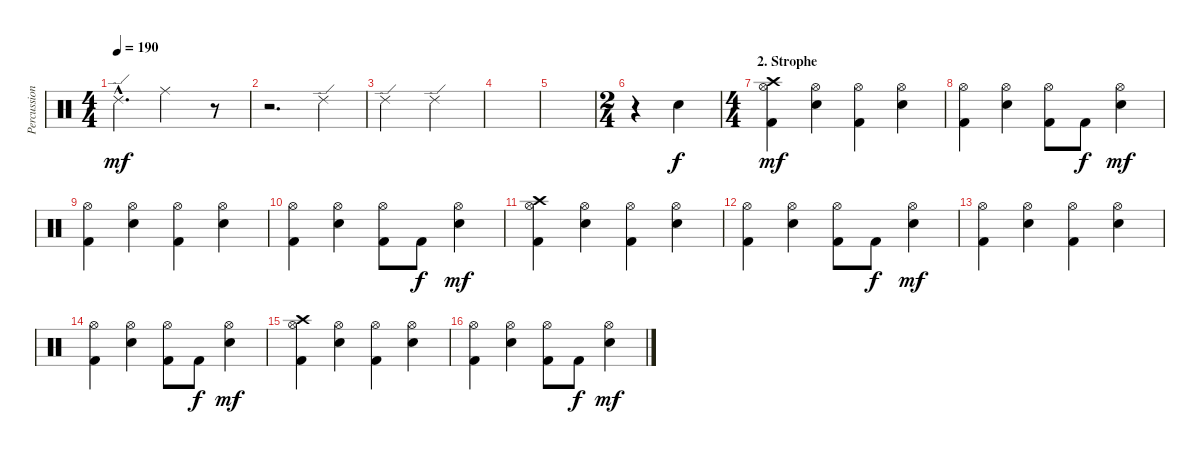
\track ("Percussion" "Percussion") {instrument percussion}
\staff {score}
\articulation defaults
\ts (4 4)
\tempo 190
\clef neutral
\ks c "Ride (edge) 2"{hac}.4{d dy mf} "Ride (middle)".2
r.8 |
r.2{d} "Ride (edge) 2".4 |
"Ride (edge) 2".2 "Ride (edge) 2".2 |
|
|
\ts (2 4)
\section ("" "")
r.4 "Electric Snare (hit)".4{dy f} |
\ts (4 4)
\section ("" "2. Strophe")
("Crash high (hit)" "Hi-Hat (open)" "Kick (hit) 2").4{dy mf} ("Hi-Hat (open)" "Electric Snare (hit)").4 ("Hi-Hat (open)" "Kick (hit) 2").4 ("Hi-Hat (open)" "Electric Snare (hit)").4 |
("Hi-Hat (open)" "Kick (hit) 2").4 ("Hi-Hat (open)" "Electric Snare (hit)").4 ("Hi-Hat (open)" "Kick (hit) 2").8 "Kick (hit) 2".8{dy f} ("Hi-Hat (open)" "Electric Snare (hit)").4{dy mf} |
("Hi-Hat (open)" "Kick (hit) 2").4 ("Hi-Hat (open)" "Electric Snare (hit)").4 ("Hi-Hat (open)" "Kick (hit) 2").4 ("Hi-Hat (open)" "Electric Snare (hit)").4 |
("Hi-Hat (open)" "Kick (hit) 2").4 ("Hi-Hat (open)" "Electric Snare (hit)").4 ("Hi-Hat (open)" "Kick (hit) 2").8 "Kick (hit) 2".8{dy f} ("Hi-Hat (open)" "Electric Snare (hit)").4{dy mf} |
("Crash high (hit)" "Hi-Hat (open)" "Kick (hit) 2").4 ("Hi-Hat (open)" "Electric Snare (hit)").4 ("Hi-Hat (open)" "Kick (hit) 2").4 ("Hi-Hat (open)" "Electric Snare (hit)").4 |
("Hi-Hat (open)" "Kick (hit) 2").4 ("Hi-Hat (open)" "Electric Snare (hit)").4 ("Hi-Hat (open)" "Kick (hit) 2").8 "Kick (hit) 2".8{dy f} ("Hi-Hat (open)" "Electric Snare (hit)").4{dy mf} |
("Hi-Hat (open)" "Kick (hit) 2").4 ("Hi-Hat (open)" "Electric Snare (hit)").4 ("Hi-Hat (open)" "Kick (hit) 2").4 ("Hi-Hat (open)" "Electric Snare (hit)").4 |
("Hi-Hat (open)" "Kick (hit) 2").4 ("Hi-Hat (open)" "Electric Snare (hit)").4 ("Hi-Hat (open)" "Kick (hit) 2").8 "Kick (hit) 2".8{dy f} ("Hi-Hat (open)" "Electric Snare (hit)").4{dy mf} |
("Crash high (hit)" "Hi-Hat (open)" "Kick (hit) 2").4 ("Hi-Hat (open)" "Electric Snare (hit)").4 ("Hi-Hat (open)" "Kick (hit) 2").4 ("Hi-Hat (open)" "Electric Snare (hit)").4 |
("Hi-Hat (open)" "Kick (hit) 2").4 ("Hi-Hat (open)" "Electric Snare (hit)").4 ("Hi-Hat (open)" "Kick (hit) 2").8 "Kick (hit) 2".8{dy f} ("Hi-Hat (open)" "Electric Snare (hit)").4{dy mf}
